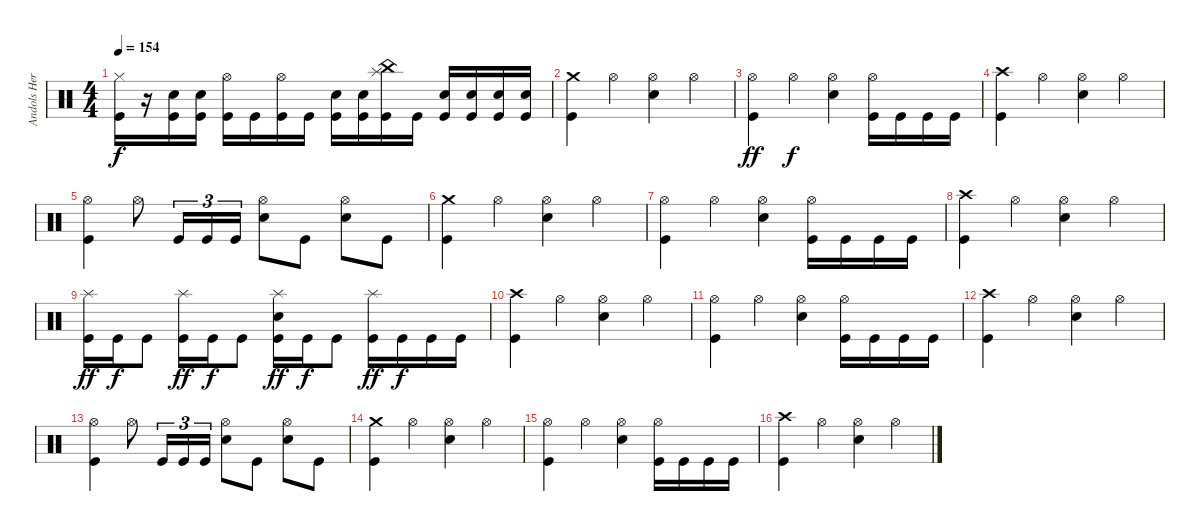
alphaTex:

\track ("Andols Herrick" "Andols Her") {instrument percussion}
\staff
\articulation defaults
\ts (4 4)
\tempo 154
\clef neutral
\ks c
("Hi-Hat (closed)" "Kick (hit)").16{dy f} r.16 ("Electric Snare (hit)" "Kick (hit)").16 ("Electric Snare (hit)" "Kick (hit)").16 ("Hi-Hat (open)" "Kick (hit)").16 "Kick (hit)".16 ("Hi-Hat (open)" "Kick (hit)").16 "Kick (hit)".16 ("Electric Snare (hit)" "Kick (hit)").16 ("Electric Snare (hit)" "Kick (hit)").16 ("Splash (hit)" "China (hit)" "Kick (hit)").16 "Kick (hit)".16 ("Electric Snare (hit)" "Kick (hit)").16 ("Electric Snare (hit)" "Kick (hit)").16 ("Electric Snare (hit)" "Kick (hit)").16 ("Electric Snare (hit)" "Kick (hit)").16 |
("Crash medium (hit)" "Kick (hit)").4 "Hi-Hat (open)".4 ("Hi-Hat (open)" "Electric Snare (hit)").4 "Hi-Hat (open)".4 |
("Hi-Hat (open)" "Kick (hit)").4{dy ff} "Hi-Hat (open)".4{dy f} ("Hi-Hat (open)" "Electric Snare (hit)").4 ("Hi-Hat (open)" "Kick (hit)").16 "Kick (hit)".16 "Kick (hit)".16 "Kick (hit)".16 |
("Crash high (hit)" "Kick (hit)").4 "Hi-Hat (open)".4 ("Hi-Hat (open)" "Electric Snare (hit)").4 "Hi-Hat (open)".4 |
("Hi-Hat (open)" "Kick (hit)").4 "Hi-Hat (open)".8 "Kick (hit)".16{tu (3 2)} "Kick (hit)".16{tu (3 2)} "Kick (hit)".16{tu (3 2)} ("Hi-Hat (open)" "Electric Snare (hit)").8 "Kick (hit)".8 ("Hi-Hat (open)" "Electric Snare (hit)").8 "Kick (hit)".8 |
("Crash medium (hit)" "Kick (hit)").4 "Hi-Hat (open)".4 ("Hi-Hat (open)" "Electric Snare (hit)").4 "Hi-Hat (open)".4 |
("Hi-Hat (open)" "Kick (hit)").4 "Hi-Hat (open)".4 ("Hi-Hat (open)" "Electric Snare (hit)").4 ("Hi-Hat (open)" "Kick (hit)").16 "Kick (hit)".16 "Kick (hit)".16 "Kick (hit)".16 |
("Crash high (hit)" "Kick (hit)").4 "Hi-Hat (open)".4 ("Hi-Hat (open)" "Electric Snare (hit)").4 "Hi-Hat (open)".4 |
("Splash (hit)" "Kick (hit)").16{dy ff} "Kick (hit)".16{dy f} "Kick (hit)".8 ("Splash (hit)" "Kick (hit)").16{dy ff} "Kick (hit)".16{dy f} "Kick (hit)".8 ("Splash (hit)" "Electric Snare (hit)" "Kick (hit)").16{dy ff} "Kick (hit)".16{dy f} "Kick (hit)".8 ("Splash (hit)" "Kick (hit)").16{dy ff} "Kick (hit)".16{dy f} "Kick (hit)".16 "Kick (hit)".16 |
("Crash high (hit)" "Kick (hit)").4 "Hi-Hat (open)".4 ("Hi-Hat (open)" "Electric Snare (hit)").4 "Hi-Hat (open)".4 |
("Hi-Hat (open)" "Kick (hit)").4 "Hi-Hat (open)".4 ("Hi-Hat (open)" "Electric Snare (hit)").4 ("Hi-Hat (open)" "Kick (hit)").16 "Kick (hit)".16 "Kick (hit)".16 "Kick (hit)".16 |
("Crash high (hit)" "Kick (hit)").4 "Hi-Hat (open)".4 ("Hi-Hat (open)" "Electric Snare (hit)").4 "Hi-Hat (open)".4 |
("Hi-Hat (open)" "Kick (hit)").4 "Hi-Hat (open)".8 "Kick (hit)".16{tu (3 2)} "Kick (hit)".16{tu (3 2)} "Kick (hit)".16{tu (3 2)} ("Hi-Hat (open)" "Electric Snare (hit)").8 "Kick (hit)".8 ("Hi-Hat (open)" "Electric Snare (hit)").8 "Kick (hit)".8 |
("Crash medium (hit)" "Kick (hit)").4 "Hi-Hat (open)".4 ("Hi-Hat (open)" "Electric Snare (hit)").4 "Hi-Hat (open)".4 |
("Hi-Hat (open)" "Kick (hit)").4 "Hi-Hat (open)".4 ("Hi-Hat (open)" "Electric Snare (hit)").4 ("Hi-Hat (open)" "Kick (hit)").16 "Kick (hit)".16 "Kick (hit)".16 "Kick (hit)".16 |
("Crash high (hit)" "Kick (hit)").4 "Hi-Hat (open)".4 ("Hi-Hat (open)" "Electric Snare (hit)").4 "Hi-Hat (open)".4
